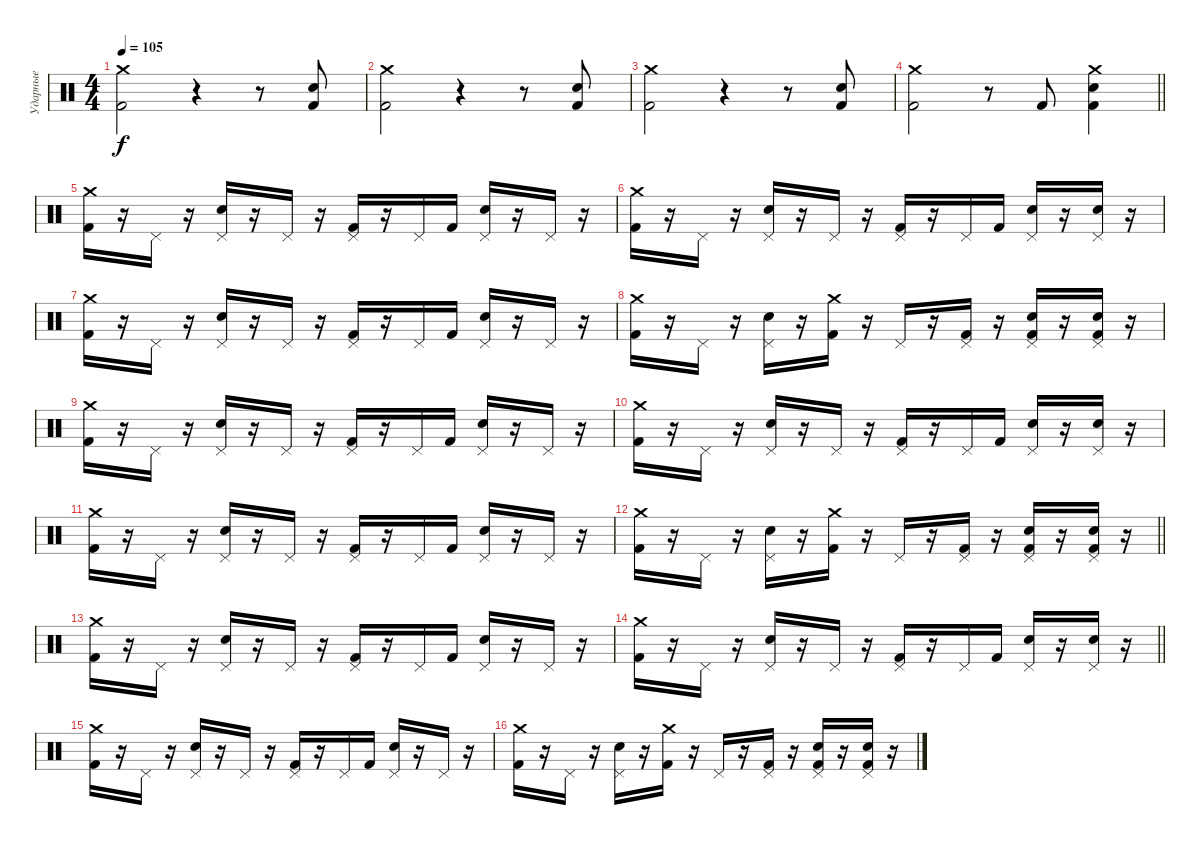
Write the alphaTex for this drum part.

\track ("Ударные" "Ударные") {instrument percussion}
\staff {score}
\articulation defaults
\ts (4 4)
\section ("" "")
\tempo 105
\clef neutral
\ks c
("Crash medium (hit)" "Kick (hit) 2").2{dy f} r.4 r.8 ("Kick (hit) 2" "Electric Snare (hit)").8 |
("Crash medium (hit)" "Kick (hit) 2").2 r.4 r.8 ("Kick (hit) 2" "Electric Snare (hit)").8 |
("Crash medium (hit)" "Kick (hit) 2").2 r.4 r.8 ("Kick (hit) 2" "Electric Snare (hit)").8 |
\barLineRight lightlight
("Crash medium (hit)" "Kick (hit) 2").2 r.8 "Kick (hit) 2".8 ("Crash medium (hit)" "Kick (hit) 2" "Electric Snare (hit)").4 |
\section ("" "")
("Crash medium (hit)" "Kick (hit) 2").16 r.16 "Pedal Hi-Hat (hit)".16 r.16 ("Pedal Hi-Hat (hit)" "Electric Snare (hit)").16 r.16 "Pedal Hi-Hat (hit)".16 r.16 ("Pedal Hi-Hat (hit)" "Kick (hit) 2").16 r.16 "Pedal Hi-Hat (hit)".16 "Kick (hit) 2".16 ("Pedal Hi-Hat (hit)" "Electric Snare (hit)").16 r.16 "Pedal Hi-Hat (hit)".16 r.16 |
("Crash medium (hit)" "Kick (hit) 2").16 r.16 "Pedal Hi-Hat (hit)".16 r.16 ("Pedal Hi-Hat (hit)" "Electric Snare (hit)").16 r.16 "Pedal Hi-Hat (hit)".16 r.16 ("Pedal Hi-Hat (hit)" "Kick (hit) 2").16 r.16 "Pedal Hi-Hat (hit)".16 "Kick (hit) 2".16 ("Pedal Hi-Hat (hit)" "Electric Snare (hit)").16 r.16 ("Pedal Hi-Hat (hit)" "Electric Snare (hit)").16 r.16 |
("Crash medium (hit)" "Kick (hit) 2").16 r.16 "Pedal Hi-Hat (hit)".16 r.16 ("Pedal Hi-Hat (hit)" "Electric Snare (hit)").16 r.16 "Pedal Hi-Hat (hit)".16 r.16 ("Pedal Hi-Hat (hit)" "Kick (hit) 2").16 r.16 "Pedal Hi-Hat (hit)".16 "Kick (hit) 2".16 ("Pedal Hi-Hat (hit)" "Electric Snare (hit)").16 r.16 "Pedal Hi-Hat (hit)".16 r.16 |
("Crash medium (hit)" "Kick (hit) 2").16 r.16 "Pedal Hi-Hat (hit)".16 r.16 ("Pedal Hi-Hat (hit)" "Electric Snare (hit)").16 r.16 ("Crash medium (hit)" "Kick (hit) 2").16 r.16 "Pedal Hi-Hat (hit)".16 r.16 ("Pedal Hi-Hat (hit)" "Kick (hit) 2").16 r.16 ("Pedal Hi-Hat (hit)" "Electric Snare (hit)" "Kick (hit) 2").16 r.16 ("Pedal Hi-Hat (hit)" "Electric Snare (hit)" "Kick (hit) 2").16 r.16 |
("Crash medium (hit)" "Kick (hit) 2").16 r.16 "Pedal Hi-Hat (hit)".16 r.16 ("Pedal Hi-Hat (hit)" "Electric Snare (hit)").16 r.16 "Pedal Hi-Hat (hit)".16 r.16 ("Pedal Hi-Hat (hit)" "Kick (hit) 2").16 r.16 "Pedal Hi-Hat (hit)".16 "Kick (hit) 2".16 ("Pedal Hi-Hat (hit)" "Electric Snare (hit)").16 r.16 "Pedal Hi-Hat (hit)".16 r.16 |
("Crash medium (hit)" "Kick (hit) 2").16 r.16 "Pedal Hi-Hat (hit)".16 r.16 ("Pedal Hi-Hat (hit)" "Electric Snare (hit)").16 r.16 "Pedal Hi-Hat (hit)".16 r.16 ("Pedal Hi-Hat (hit)" "Kick (hit) 2").16 r.16 "Pedal Hi-Hat (hit)".16 "Kick (hit) 2".16 ("Pedal Hi-Hat (hit)" "Electric Snare (hit)").16 r.16 ("Pedal Hi-Hat (hit)" "Electric Snare (hit)").16 r.16 |
("Crash medium (hit)" "Kick (hit) 2").16 r.16 "Pedal Hi-Hat (hit)".16 r.16 ("Pedal Hi-Hat (hit)" "Electric Snare (hit)").16 r.16 "Pedal Hi-Hat (hit)".16 r.16 ("Pedal Hi-Hat (hit)" "Kick (hit) 2").16 r.16 "Pedal Hi-Hat (hit)".16 "Kick (hit) 2".16 ("Pedal Hi-Hat (hit)" "Electric Snare (hit)").16 r.16 "Pedal Hi-Hat (hit)".16 r.16 |
\barLineRight lightlight
("Crash medium (hit)" "Kick (hit) 2").16 r.16 "Pedal Hi-Hat (hit)".16 r.16 ("Pedal Hi-Hat (hit)" "Electric Snare (hit)").16 r.16 ("Crash medium (hit)" "Kick (hit) 2").16 r.16 "Pedal Hi-Hat (hit)".16 r.16 ("Pedal Hi-Hat (hit)" "Kick (hit) 2").16 r.16 ("Pedal Hi-Hat (hit)" "Electric Snare (hit)" "Kick (hit) 2").16 r.16 ("Pedal Hi-Hat (hit)" "Electric Snare (hit)" "Kick (hit) 2").16 r.16 |
\section ("" "")
("Crash medium (hit)" "Kick (hit) 2").16 r.16 "Pedal Hi-Hat (hit)".16 r.16 ("Pedal Hi-Hat (hit)" "Electric Snare (hit)").16 r.16 "Pedal Hi-Hat (hit)".16 r.16 ("Pedal Hi-Hat (hit)" "Kick (hit) 2").16 r.16 "Pedal Hi-Hat (hit)".16 "Kick (hit) 2".16 ("Pedal Hi-Hat (hit)" "Electric Snare (hit)").16 r.16 "Pedal Hi-Hat (hit)".16 r.16 |
\barLineRight lightlight
("Crash medium (hit)" "Kick (hit) 2").16 r.16 "Pedal Hi-Hat (hit)".16 r.16 ("Pedal Hi-Hat (hit)" "Electric Snare (hit)").16 r.16 "Pedal Hi-Hat (hit)".16 r.16 ("Pedal Hi-Hat (hit)" "Kick (hit) 2").16 r.16 "Pedal Hi-Hat (hit)".16 "Kick (hit) 2".16 ("Pedal Hi-Hat (hit)" "Electric Snare (hit)").16 r.16 ("Pedal Hi-Hat (hit)" "Electric Snare (hit)").16 r.16 |
("Crash medium (hit)" "Kick (hit) 2").16 r.16 "Pedal Hi-Hat (hit)".16 r.16 ("Pedal Hi-Hat (hit)" "Electric Snare (hit)").16 r.16 "Pedal Hi-Hat (hit)".16 r.16 ("Pedal Hi-Hat (hit)" "Kick (hit) 2").16 r.16 "Pedal Hi-Hat (hit)".16 "Kick (hit) 2".16 ("Pedal Hi-Hat (hit)" "Electric Snare (hit)").16 r.16 "Pedal Hi-Hat (hit)".16 r.16 |
("Crash medium (hit)" "Kick (hit) 2").16 r.16 "Pedal Hi-Hat (hit)".16 r.16 ("Pedal Hi-Hat (hit)" "Electric Snare (hit)").16 r.16 ("Crash medium (hit)" "Kick (hit) 2").16 r.16 "Pedal Hi-Hat (hit)".16 r.16 ("Pedal Hi-Hat (hit)" "Kick (hit) 2").16 r.16 ("Pedal Hi-Hat (hit)" "Electric Snare (hit)" "Kick (hit) 2").16 r.16 ("Pedal Hi-Hat (hit)" "Electric Snare (hit)" "Kick (hit) 2").16 r.16
